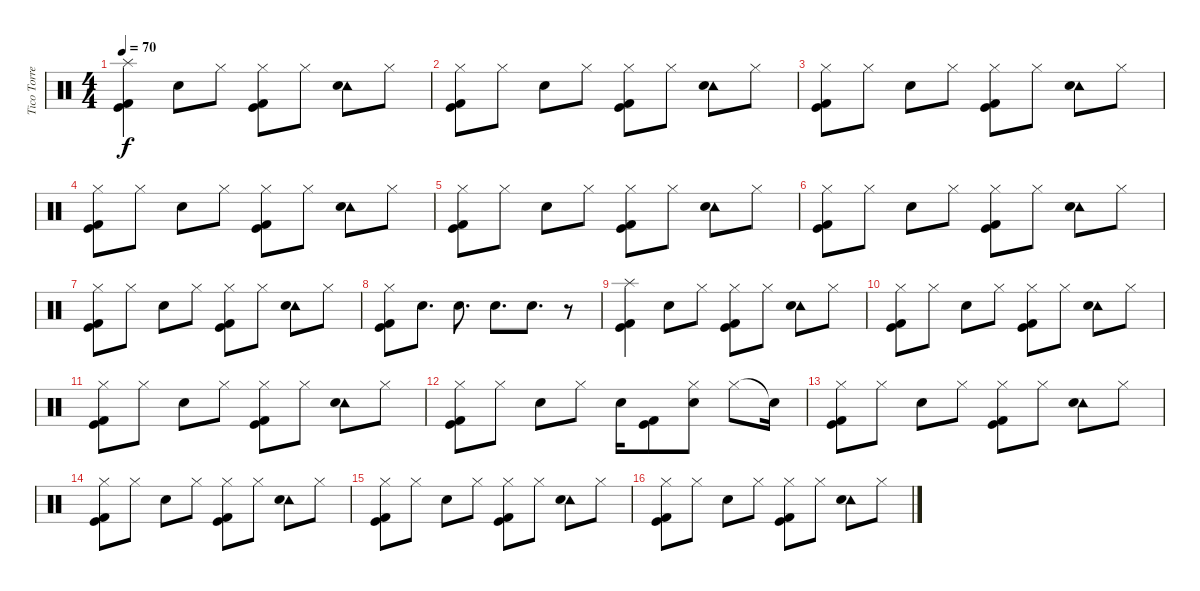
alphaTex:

\track ("Tico Torres" "Tico Torre") {instrument percussion}
\staff {score}
\articulation defaults
\ts (4 4)
\tempo 70
\clef neutral
\ks c
("Splash (hit)" "Kick (hit) 2" "Kick (hit)").4{dy f} "Snare (hit) 2".8 "Hi-Hat (closed)".8 ("Hi-Hat (closed)" "Kick (hit) 2" "Kick (hit)").8 "Hi-Hat (closed)".8 ("Tambourine (hit)" "Snare (hit) 2").8 "Hi-Hat (closed)".8 |
("Hi-Hat (closed)" "Kick (hit) 2" "Kick (hit)").8 "Hi-Hat (closed)".8 "Snare (hit) 2".8 "Hi-Hat (closed)".8 ("Hi-Hat (closed)" "Kick (hit) 2" "Kick (hit)").8 "Hi-Hat (closed)".8 ("Tambourine (hit)" "Snare (hit) 2").8 "Hi-Hat (closed)".8 |
("Hi-Hat (closed)" "Kick (hit) 2" "Kick (hit)").8 "Hi-Hat (closed)".8 "Snare (hit) 2".8 "Hi-Hat (closed)".8 ("Hi-Hat (closed)" "Kick (hit) 2" "Kick (hit)").8 "Hi-Hat (closed)".8 ("Tambourine (hit)" "Snare (hit) 2").8 "Hi-Hat (closed)".8 |
("Hi-Hat (closed)" "Kick (hit) 2" "Kick (hit)").8 "Hi-Hat (closed)".8 "Snare (hit) 2".8 "Hi-Hat (closed)".8 ("Hi-Hat (closed)" "Kick (hit) 2" "Kick (hit)").8 "Hi-Hat (closed)".8 ("Tambourine (hit)" "Snare (hit) 2").8 "Hi-Hat (closed)".8 |
("Hi-Hat (closed)" "Kick (hit) 2" "Kick (hit)").8 "Hi-Hat (closed)".8 "Snare (hit) 2".8 "Hi-Hat (closed)".8 ("Hi-Hat (closed)" "Kick (hit) 2" "Kick (hit)").8 "Hi-Hat (closed)".8 ("Tambourine (hit)" "Snare (hit) 2").8 "Hi-Hat (closed)".8 |
("Hi-Hat (closed)" "Kick (hit) 2" "Kick (hit)").8 "Hi-Hat (closed)".8 "Snare (hit) 2".8 "Hi-Hat (closed)".8 ("Hi-Hat (closed)" "Kick (hit) 2" "Kick (hit)").8 "Hi-Hat (closed)".8 ("Tambourine (hit)" "Snare (hit) 2").8 "Hi-Hat (closed)".8 |
("Hi-Hat (closed)" "Kick (hit) 2" "Kick (hit)").8 "Hi-Hat (closed)".8 "Snare (hit) 2".8 "Hi-Hat (closed)".8 ("Hi-Hat (closed)" "Kick (hit) 2" "Kick (hit)").8 "Hi-Hat (closed)".8 ("Tambourine (hit)" "Snare (hit) 2").8 "Hi-Hat (closed)".8 |
("Hi-Hat (closed)" "Kick (hit) 2" "Kick (hit)").8 "Snare (hit) 2".8{d} "Snare (hit) 2".8{d} "Snare (hit) 2".8{d} "Snare (hit) 2".8{d} r.8 |
("Splash (hit)" "Kick (hit) 2" "Kick (hit)").4 "Snare (hit) 2".8 "Hi-Hat (closed)".8 ("Hi-Hat (closed)" "Kick (hit) 2" "Kick (hit)").8 "Hi-Hat (closed)".8 ("Tambourine (hit)" "Snare (hit) 2").8 "Hi-Hat (closed)".8 |
("Hi-Hat (closed)" "Kick (hit) 2" "Kick (hit)").8 "Hi-Hat (closed)".8 "Snare (hit) 2".8 "Hi-Hat (closed)".8 ("Hi-Hat (closed)" "Kick (hit) 2" "Kick (hit)").8 "Hi-Hat (closed)".8 ("Tambourine (hit)" "Snare (hit) 2").8 "Hi-Hat (closed)".8 |
("Hi-Hat (closed)" "Kick (hit) 2" "Kick (hit)").8 "Hi-Hat (closed)".8 "Snare (hit) 2".8 "Hi-Hat (closed)".8 ("Hi-Hat (closed)" "Kick (hit) 2" "Kick (hit)").8 "Hi-Hat (closed)".8 ("Tambourine (hit)" "Snare (hit) 2").8 "Hi-Hat (closed)".8 |
("Hi-Hat (closed)" "Kick (hit) 2" "Kick (hit)").8 "Hi-Hat (closed)".8 "Snare (hit) 2".8 "Hi-Hat (closed)".8 "Snare (hit) 2".16 ("Kick (hit) 2" "Kick (hit)").8 ("Hi-Hat (closed)" "Snare (hit) 2").8 "Hi-Hat (closed)".8 "Snare (hit)"{t}.16 |
("Hi-Hat (closed)" "Kick (hit) 2" "Kick (hit)").8 "Hi-Hat (closed)".8 "Snare (hit) 2".8 "Hi-Hat (closed)".8 ("Hi-Hat (closed)" "Kick (hit) 2" "Kick (hit)").8 "Hi-Hat (closed)".8 ("Tambourine (hit)" "Snare (hit) 2").8 "Hi-Hat (closed)".8 |
("Hi-Hat (closed)" "Kick (hit) 2" "Kick (hit)").8 "Hi-Hat (closed)".8 "Snare (hit) 2".8 "Hi-Hat (closed)".8 ("Hi-Hat (closed)" "Kick (hit) 2" "Kick (hit)").8 "Hi-Hat (closed)".8 ("Tambourine (hit)" "Snare (hit) 2").8 "Hi-Hat (closed)".8 |
("Hi-Hat (closed)" "Kick (hit) 2" "Kick (hit)").8 "Hi-Hat (closed)".8 "Snare (hit) 2".8 "Hi-Hat (closed)".8 ("Hi-Hat (closed)" "Kick (hit) 2" "Kick (hit)").8 "Hi-Hat (closed)".8 ("Tambourine (hit)" "Snare (hit) 2").8 "Hi-Hat (closed)".8 |
("Hi-Hat (closed)" "Kick (hit) 2" "Kick (hit)").8 "Hi-Hat (closed)".8 "Snare (hit) 2".8 "Hi-Hat (closed)".8 ("Hi-Hat (closed)" "Kick (hit) 2" "Kick (hit)").8 "Hi-Hat (closed)".8 ("Tambourine (hit)" "Snare (hit) 2").8 "Hi-Hat (closed)".8
